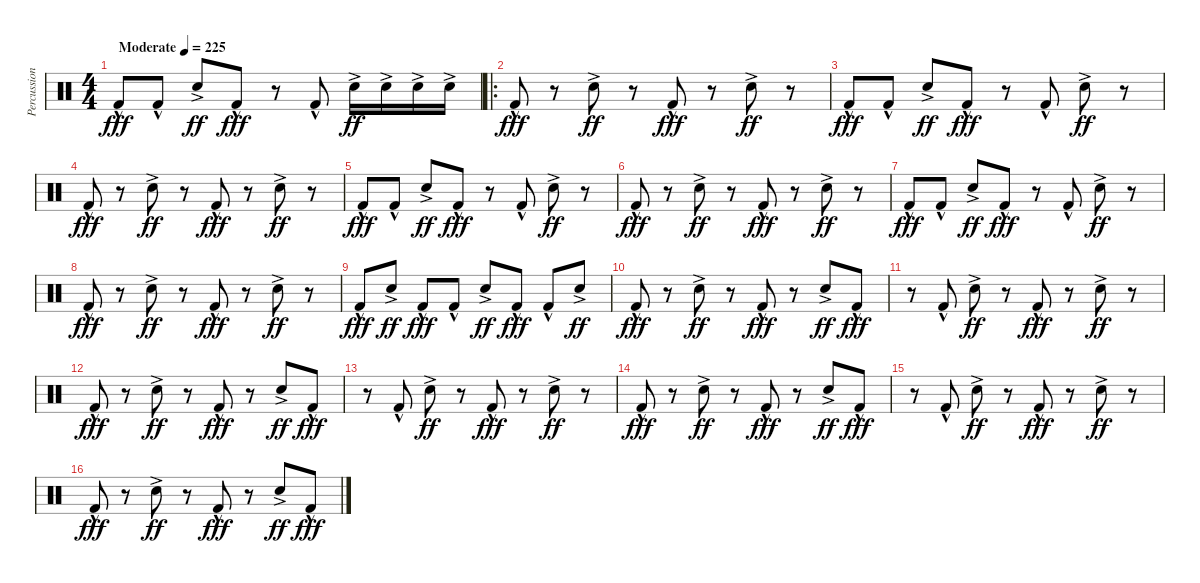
\track ("Percussion" "Percussion") {instrument percussion}
\staff {score}
\articulation defaults
\ts (4 4)
\tempo (225 "Moderate")
\clef neutral
\ks c "Kick (hit) 2"{hac}.8{dy fff} "Kick (hit) 2"{hac}.8 "Snare (hit) 2"{ac}.8{dy ff} "Kick (hit) 2"{hac}.8{dy fff}
r.8 "Kick (hit) 2"{hac}.8 "Snare (hit) 2"{ac}.16{dy ff} "Snare (hit) 2"{ac}.16 "Snare (hit) 2"{ac}.16 "Snare (hit) 2"{ac}.16 |
\ro "Kick (hit) 2"{hac}.8{dy fff}
r.8 "Snare (hit) 2"{ac}.8{dy ff} r.8 "Kick (hit) 2"{hac}.8{dy fff} r.8 "Snare (hit) 2"{ac}.8{dy ff} r.8 |
"Kick (hit) 2"{hac}.8{dy fff} "Kick (hit) 2"{hac}.8 "Snare (hit) 2"{ac}.8{dy ff} "Kick (hit) 2"{hac}.8{dy fff} r.8 "Kick (hit) 2"{hac}.8 "Snare (hit) 2"{ac}.8{dy ff} r.8 |
"Kick (hit) 2"{hac}.8{dy fff} r.8 "Snare (hit) 2"{ac}.8{dy ff} r.8 "Kick (hit) 2"{hac}.8{dy fff} r.8 "Snare (hit) 2"{ac}.8{dy ff} r.8 |
"Kick (hit) 2"{hac}.8{dy fff} "Kick (hit) 2"{hac}.8 "Snare (hit) 2"{ac}.8{dy ff} "Kick (hit) 2"{hac}.8{dy fff} r.8 "Kick (hit) 2"{hac}.8 "Snare (hit) 2"{ac}.8{dy ff} r.8 |
"Kick (hit) 2"{hac}.8{dy fff} r.8 "Snare (hit) 2"{ac}.8{dy ff} r.8 "Kick (hit) 2"{hac}.8{dy fff} r.8 "Snare (hit) 2"{ac}.8{dy ff} r.8 |
"Kick (hit) 2"{hac}.8{dy fff} "Kick (hit) 2"{hac}.8 "Snare (hit) 2"{ac}.8{dy ff} "Kick (hit) 2"{hac}.8{dy fff} r.8 "Kick (hit) 2"{hac}.8 "Snare (hit) 2"{ac}.8{dy ff} r.8 |
"Kick (hit) 2"{hac}.8{dy fff} r.8 "Snare (hit) 2"{ac}.8{dy ff} r.8 "Kick (hit) 2"{hac}.8{dy fff} r.8 "Snare (hit) 2"{ac}.8{dy ff} r.8 |
"Kick (hit) 2"{hac}.8{dy fff} "Snare (hit) 2"{ac}.8{dy ff} "Kick (hit) 2"{hac}.8{dy fff} "Kick (hit) 2"{hac}.8 "Snare (hit) 2"{ac}.8{dy ff} "Kick (hit) 2"{hac}.8{dy fff} "Kick (hit) 2"{hac}.8 "Snare (hit) 2"{ac}.8{dy ff} |
"Kick (hit) 2"{hac}.8{dy fff} r.8 "Snare (hit) 2"{ac}.8{dy ff} r.8 "Kick (hit) 2"{hac}.8{dy fff} r.8 "Snare (hit) 2"{ac}.8{dy ff} "Kick (hit) 2"{hac}.8{dy fff} |
r.8 "Kick (hit) 2"{hac}.8 "Snare (hit) 2"{ac}.8{dy ff} r.8 "Kick (hit) 2"{hac}.8{dy fff} r.8 "Snare (hit) 2"{ac}.8{dy ff} r.8 |
"Kick (hit) 2"{hac}.8{dy fff} r.8 "Snare (hit) 2"{ac}.8{dy ff} r.8 "Kick (hit) 2"{hac}.8{dy fff} r.8 "Snare (hit) 2"{ac}.8{dy ff} "Kick (hit) 2"{hac}.8{dy fff} |
r.8 "Kick (hit) 2"{hac}.8 "Snare (hit) 2"{ac}.8{dy ff} r.8 "Kick (hit) 2"{hac}.8{dy fff} r.8 "Snare (hit) 2"{ac}.8{dy ff} r.8 |
"Kick (hit) 2"{hac}.8{dy fff} r.8 "Snare (hit) 2"{ac}.8{dy ff} r.8 "Kick (hit) 2"{hac}.8{dy fff} r.8 "Snare (hit) 2"{ac}.8{dy ff} "Kick (hit) 2"{hac}.8{dy fff} |
r.8 "Kick (hit) 2"{hac}.8 "Snare (hit) 2"{ac}.8{dy ff} r.8 "Kick (hit) 2"{hac}.8{dy fff} r.8 "Snare (hit) 2"{ac}.8{dy ff} r.8 |
"Kick (hit) 2"{hac}.8{dy fff} r.8 "Snare (hit) 2"{ac}.8{dy ff} r.8 "Kick (hit) 2"{hac}.8{dy fff} r.8 "Snare (hit) 2"{ac}.8{dy ff} "Kick (hit) 2"{hac}.8{dy fff}
